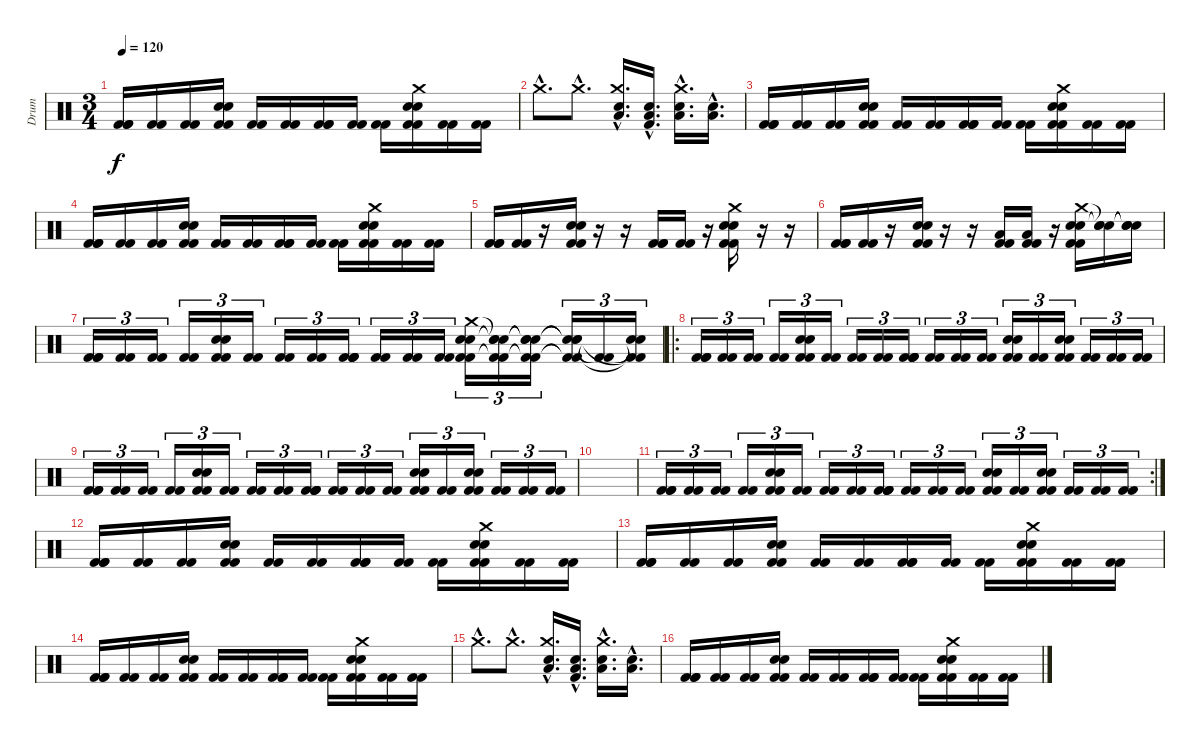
\track ("Drum" "Drum") {instrument percussion}
\staff {score}
\articulation defaults
\ts (3 4)
\tempo 120
\clef neutral
\ks c
("Kick (hit) 2" "Kick (hit) 2" "Kick (hit) 2").16{dy f} ("Kick (hit) 2" "Kick (hit) 2").16 ("Kick (hit) 2" "Kick (hit) 2").16 ("Electric Snare (hit)" "Electric Snare (hit)" "Kick (hit) 2" "Kick (hit) 2").16 ("Kick (hit) 2" "Kick (hit) 2").16 ("Kick (hit) 2" "Kick (hit) 2").16 ("Kick (hit) 2" "Kick (hit) 2" "Kick (hit) 2").16 ("Kick (hit) 2" "Kick (hit) 2").16 ("Kick (hit) 2" "Kick (hit) 2").16 ("Electric Snare (hit)" "Electric Snare (hit)" "Crash medium (hit)" "Kick (hit) 2" "Kick (hit) 2").16 ("Kick (hit) 2" "Kick (hit) 2").16 ("Kick (hit) 2" "Kick (hit) 2").16 |
"Crash medium (hit)"{hac}.8{d} "Crash medium (hit)"{hac}.8{d} ("Crash medium (hit)"{hac} "Electric Snare (hit)"{hac} "Low Tom (hit)"{hac}).16{d} ("Electric Snare (hit)"{hac} "Low Tom (hit)"{hac} "Kick (hit) 2"{hac}).16{d} ("Crash medium (hit)"{hac} "Electric Snare (hit)"{hac} "Low Tom (hit)"{hac}).16{d} ("Electric Snare (hit)"{hac} "Low Tom (hit)"{hac}).16{d} |
("Kick (hit) 2" "Kick (hit) 2" "Kick (hit) 2").16 ("Kick (hit) 2" "Kick (hit) 2").16 ("Kick (hit) 2" "Kick (hit) 2").16 ("Electric Snare (hit)" "Electric Snare (hit)" "Kick (hit) 2" "Kick (hit) 2").16 ("Kick (hit) 2" "Kick (hit) 2").16 ("Kick (hit) 2" "Kick (hit) 2").16 ("Kick (hit) 2" "Kick (hit) 2" "Kick (hit) 2").16 ("Kick (hit) 2" "Kick (hit) 2").16 ("Kick (hit) 2" "Kick (hit) 2").16 ("Electric Snare (hit)" "Electric Snare (hit)" "Crash medium (hit)" "Kick (hit) 2" "Kick (hit) 2").16 ("Kick (hit) 2" "Kick (hit) 2").16 ("Kick (hit) 2" "Kick (hit) 2").16 |
("Kick (hit) 2" "Kick (hit) 2" "Kick (hit) 2").16 ("Kick (hit) 2" "Kick (hit) 2").16 ("Kick (hit) 2" "Kick (hit) 2").16 ("Electric Snare (hit)" "Electric Snare (hit)" "Kick (hit) 2" "Kick (hit) 2").16 ("Kick (hit) 2" "Kick (hit) 2").16 ("Kick (hit) 2" "Kick (hit) 2").16 ("Kick (hit) 2" "Kick (hit) 2" "Kick (hit) 2").16 ("Kick (hit) 2" "Kick (hit) 2").16 ("Kick (hit) 2" "Kick (hit) 2").16 ("Electric Snare (hit)" "Electric Snare (hit)" "Crash medium (hit)" "Kick (hit) 2" "Kick (hit) 2").16 ("Kick (hit) 2" "Kick (hit) 2").16 ("Kick (hit) 2" "Kick (hit) 2").16 |
("Kick (hit) 2" "Kick (hit) 2" "Kick (hit) 2").16 ("Kick (hit) 2" "Kick (hit) 2").16 r.16 ("Electric Snare (hit)" "Electric Snare (hit)" "Kick (hit) 2" "Kick (hit) 2").16 r.16 r.16 ("Kick (hit) 2" "Kick (hit) 2" "Kick (hit) 2").16 ("Kick (hit) 2" "Kick (hit) 2").16 r.16 ("Electric Snare (hit)" "Electric Snare (hit)" "Crash medium (hit)" "Kick (hit) 2" "Kick (hit) 2").16 r.16 r.16 |
("Kick (hit) 2" "Kick (hit) 2" "Kick (hit) 2").16 ("Kick (hit) 2" "Kick (hit) 2").16 r.16 ("Electric Snare (hit)" "Electric Snare (hit)" "Kick (hit) 2" "Kick (hit) 2").16 r.16 r.16 ("Low Tom (hit)" "Kick (hit) 2" "Kick (hit) 2").16 ("Low Tom (hit)" "Kick (hit) 2" "Kick (hit) 2").16 r.16 ("Electric Snare (hit)" "Electric Snare (hit)" "Crash medium (hit)" "Kick (hit) 2" "Kick (hit) 2").16 ("Snare (hit)"{t} "Snare (hit)"{t} "Snare (hit)"{t}).16 ("Snare (hit)"{t} "Snare (hit)"{t} "Snare (hit)"{t}).16 |
("Kick (hit) 2" "Kick (hit) 2" "Kick (hit) 2").16{tu (3 2)} ("Kick (hit) 2" "Kick (hit) 2").16{tu (3 2)} ("Kick (hit) 2" "Kick (hit) 2").16{tu (3 2)} ("Kick (hit) 2" "Kick (hit) 2").16{tu (3 2)} ("Electric Snare (hit)" "Electric Snare (hit)" "Kick (hit) 2" "Kick (hit) 2").16{tu (3 2)} ("Kick (hit) 2" "Kick (hit) 2").16{tu (3 2)} ("Kick (hit) 2" "Kick (hit) 2").16{tu (3 2)} ("Kick (hit) 2" "Kick (hit) 2").16{tu (3 2)} ("Kick (hit) 2" "Kick (hit) 2" "Kick (hit) 2" "Kick (hit) 2").16{tu (3 2)} ("Kick (hit) 2" "Kick (hit) 2").16{tu (3 2)} ("Kick (hit) 2" "Kick (hit) 2").16{tu (3 2)} ("Kick (hit) 2" "Kick (hit) 2").16{tu (3 2)} ("Electric Snare (hit)" "Crash medium (hit)" "Electric Snare (hit)" "Kick (hit) 2" "Kick (hit) 2").16{tu (3 2)} ("Snare (hit)"{t} "Snare (hit)"{t} "Snare (hit)"{t} "Kick (hit) 2"{t} "Kick (hit) 2"{t}).16{tu (3 2)} ("Electric Snare (hit)"{t} "Snare (hit)"{t} "Electric Snare (hit)"{t} "Kick (hit) 2"{t} "Kick (hit) 2"{t}).16{tu (3 2)} ("Snare (hit)"{t} "Snare (hit)"{t} "Snare (hit)"{t} "Kick (hit) 2"{t} "Kick (hit) 2"{t}).16{tu (3 2)} ("Kick (hit) 2"{t} "Kick (hit) 2"{t}).16{tu (3 2)} ("Snare (hit)"{t} "Snare (hit)"{t} "Kick (hit) 2"{t} "Kick (hit) 2"{t}).16{tu (3 2)} |
\ro
("Kick (hit) 2" "Kick (hit) 2" "Kick (hit) 2").16{tu (3 2)} ("Kick (hit) 2" "Kick (hit) 2").16{tu (3 2)} ("Kick (hit) 2" "Kick (hit) 2").16{tu (3 2)} ("Kick (hit) 2" "Kick (hit) 2").16{tu (3 2)} ("Electric Snare (hit)" "Electric Snare (hit)" "Kick (hit) 2" "Kick (hit) 2").16{tu (3 2)} ("Kick (hit) 2" "Kick (hit) 2").16{tu (3 2)} ("Kick (hit) 2" "Kick (hit) 2").16{tu (3 2)} ("Kick (hit) 2" "Kick (hit) 2").16{tu (3 2)} ("Kick (hit) 2" "Kick (hit) 2" "Kick (hit) 2" "Kick (hit) 2").16{tu (3 2)} ("Kick (hit) 2" "Kick (hit) 2").16{tu (3 2)} ("Kick (hit) 2" "Kick (hit) 2").16{tu (3 2)} ("Kick (hit) 2" "Kick (hit) 2").16{tu (3 2)} ("Electric Snare (hit)" "Electric Snare (hit)" "Kick (hit) 2" "Kick (hit) 2").16{tu (3 2)} ("Kick (hit) 2" "Kick (hit) 2").16{tu (3 2)} ("Electric Snare (hit)" "Electric Snare (hit)" "Kick (hit) 2" "Kick (hit) 2").16{tu (3 2)} ("Kick (hit) 2" "Kick (hit) 2").16{tu (3 2)} ("Kick (hit) 2" "Kick (hit) 2").16{tu (3 2)} ("Kick (hit) 2" "Kick (hit) 2").16{tu (3 2)} |
("Kick (hit) 2" "Kick (hit) 2" "Kick (hit) 2").16{tu (3 2)} ("Kick (hit) 2" "Kick (hit) 2").16{tu (3 2)} ("Kick (hit) 2" "Kick (hit) 2").16{tu (3 2)} ("Kick (hit) 2" "Kick (hit) 2").16{tu (3 2)} ("Electric Snare (hit)" "Electric Snare (hit)" "Kick (hit) 2" "Kick (hit) 2").16{tu (3 2)} ("Kick (hit) 2" "Kick (hit) 2").16{tu (3 2)} ("Kick (hit) 2" "Kick (hit) 2").16{tu (3 2)} ("Kick (hit) 2" "Kick (hit) 2").16{tu (3 2)} ("Kick (hit) 2" "Kick (hit) 2" "Kick (hit) 2" "Kick (hit) 2").16{tu (3 2)} ("Kick (hit) 2" "Kick (hit) 2").16{tu (3 2)} ("Kick (hit) 2" "Kick (hit) 2").16{tu (3 2)} ("Kick (hit) 2" "Kick (hit) 2").16{tu (3 2)} ("Electric Snare (hit)" "Electric Snare (hit)" "Kick (hit) 2" "Kick (hit) 2").16{tu (3 2)} ("Kick (hit) 2" "Kick (hit) 2").16{tu (3 2)} ("Electric Snare (hit)" "Electric Snare (hit)" "Kick (hit) 2" "Kick (hit) 2").16{tu (3 2)} ("Kick (hit) 2" "Kick (hit) 2").16{tu (3 2)} ("Kick (hit) 2" "Kick (hit) 2").16{tu (3 2)} ("Kick (hit) 2" "Kick (hit) 2").16{tu (3 2)} |
|
\rc 2
("Kick (hit) 2" "Kick (hit) 2" "Kick (hit) 2").16{tu (3 2)} ("Kick (hit) 2" "Kick (hit) 2").16{tu (3 2)} ("Kick (hit) 2" "Kick (hit) 2").16{tu (3 2)} ("Kick (hit) 2" "Kick (hit) 2").16{tu (3 2)} ("Electric Snare (hit)" "Electric Snare (hit)" "Kick (hit) 2" "Kick (hit) 2").16{tu (3 2)} ("Kick (hit) 2" "Kick (hit) 2").16{tu (3 2)} ("Kick (hit) 2" "Kick (hit) 2").16{tu (3 2)} ("Kick (hit) 2" "Kick (hit) 2").16{tu (3 2)} ("Kick (hit) 2" "Kick (hit) 2" "Kick (hit) 2" "Kick (hit) 2").16{tu (3 2)} ("Kick (hit) 2" "Kick (hit) 2").16{tu (3 2)} ("Kick (hit) 2" "Kick (hit) 2").16{tu (3 2)} ("Kick (hit) 2" "Kick (hit) 2").16{tu (3 2)} ("Electric Snare (hit)" "Electric Snare (hit)" "Kick (hit) 2" "Kick (hit) 2").16{tu (3 2)} ("Kick (hit) 2" "Kick (hit) 2").16{tu (3 2)} ("Electric Snare (hit)" "Electric Snare (hit)" "Kick (hit) 2" "Kick (hit) 2").16{tu (3 2)} ("Kick (hit) 2" "Kick (hit) 2").16{tu (3 2)} ("Kick (hit) 2" "Kick (hit) 2").16{tu (3 2)} ("Kick (hit) 2" "Kick (hit) 2").16{tu (3 2)} |
("Kick (hit) 2" "Kick (hit) 2" "Kick (hit) 2").16 ("Kick (hit) 2" "Kick (hit) 2").16 ("Kick (hit) 2" "Kick (hit) 2").16 ("Electric Snare (hit)" "Electric Snare (hit)" "Kick (hit) 2" "Kick (hit) 2").16 ("Kick (hit) 2" "Kick (hit) 2").16 ("Kick (hit) 2" "Kick (hit) 2").16 ("Kick (hit) 2" "Kick (hit) 2" "Kick (hit) 2").16 ("Kick (hit) 2" "Kick (hit) 2").16 ("Kick (hit) 2" "Kick (hit) 2").16 ("Electric Snare (hit)" "Electric Snare (hit)" "Crash medium (hit)" "Kick (hit) 2" "Kick (hit) 2").16 ("Kick (hit) 2" "Kick (hit) 2").16 ("Kick (hit) 2" "Kick (hit) 2").16 |
("Kick (hit) 2" "Kick (hit) 2" "Kick (hit) 2").16 ("Kick (hit) 2" "Kick (hit) 2").16 ("Kick (hit) 2" "Kick (hit) 2").16 ("Electric Snare (hit)" "Electric Snare (hit)" "Kick (hit) 2" "Kick (hit) 2").16 ("Kick (hit) 2" "Kick (hit) 2").16 ("Kick (hit) 2" "Kick (hit) 2").16 ("Kick (hit) 2" "Kick (hit) 2" "Kick (hit) 2").16 ("Kick (hit) 2" "Kick (hit) 2").16 ("Kick (hit) 2" "Kick (hit) 2").16 ("Electric Snare (hit)" "Electric Snare (hit)" "Crash medium (hit)" "Kick (hit) 2" "Kick (hit) 2").16 ("Kick (hit) 2" "Kick (hit) 2").16 ("Kick (hit) 2" "Kick (hit) 2").16 |
("Kick (hit) 2" "Kick (hit) 2" "Kick (hit) 2").16 ("Kick (hit) 2" "Kick (hit) 2").16 ("Kick (hit) 2" "Kick (hit) 2").16 ("Electric Snare (hit)" "Electric Snare (hit)" "Kick (hit) 2" "Kick (hit) 2").16 ("Kick (hit) 2" "Kick (hit) 2").16 ("Kick (hit) 2" "Kick (hit) 2").16 ("Kick (hit) 2" "Kick (hit) 2" "Kick (hit) 2").16 ("Kick (hit) 2" "Kick (hit) 2").16 ("Kick (hit) 2" "Kick (hit) 2").16 ("Electric Snare (hit)" "Electric Snare (hit)" "Crash medium (hit)" "Kick (hit) 2" "Kick (hit) 2").16 ("Kick (hit) 2" "Kick (hit) 2").16 ("Kick (hit) 2" "Kick (hit) 2").16 |
"Crash medium (hit)"{hac}.8{d} "Crash medium (hit)"{hac}.8{d} ("Crash medium (hit)"{hac} "Electric Snare (hit)"{hac} "Low Tom (hit)"{hac}).16{d} ("Electric Snare (hit)"{hac} "Low Tom (hit)"{hac} "Kick (hit) 2"{hac}).16{d} ("Crash medium (hit)"{hac} "Electric Snare (hit)"{hac} "Low Tom (hit)"{hac}).16{d} ("Electric Snare (hit)"{hac} "Low Tom (hit)"{hac}).16{d} |
("Kick (hit) 2" "Kick (hit) 2" "Kick (hit) 2").16 ("Kick (hit) 2" "Kick (hit) 2").16 ("Kick (hit) 2" "Kick (hit) 2").16 ("Electric Snare (hit)" "Electric Snare (hit)" "Kick (hit) 2" "Kick (hit) 2").16 ("Kick (hit) 2" "Kick (hit) 2").16 ("Kick (hit) 2" "Kick (hit) 2").16 ("Kick (hit) 2" "Kick (hit) 2" "Kick (hit) 2").16 ("Kick (hit) 2" "Kick (hit) 2").16 ("Kick (hit) 2" "Kick (hit) 2").16 ("Electric Snare (hit)" "Electric Snare (hit)" "Crash medium (hit)" "Kick (hit) 2" "Kick (hit) 2").16 ("Kick (hit) 2" "Kick (hit) 2").16 ("Kick (hit) 2" "Kick (hit) 2").16
